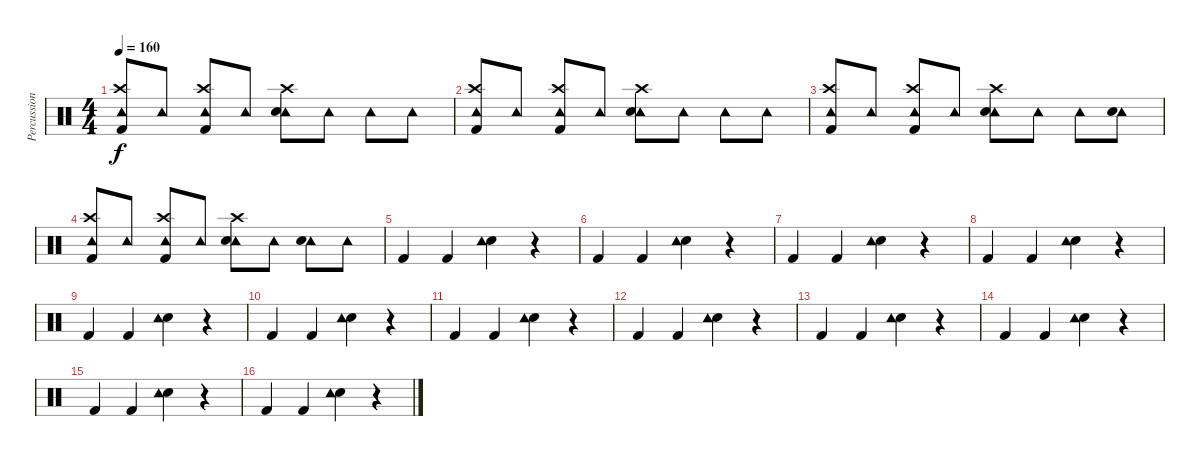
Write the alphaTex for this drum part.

\track ("Percussion" "Percussion") {instrument percussion}
\staff {score}
\articulation defaults
\ts (4 4)
\tempo 160
\clef neutral
\ks c
("Tambourine (hit)" "Crash high (hit)" "Kick (hit) 2").8{dy f} "Tambourine (hit)".8 ("Tambourine (hit)" "Crash high (hit)" "Kick (hit) 2").8 "Tambourine (hit)".8 ("Tambourine (hit)" "Crash high (hit)" "Snare (hit) 2").8 "Tambourine (hit)".8 "Tambourine (hit)".8 "Tambourine (hit)".8 |
("Tambourine (hit)" "Crash high (hit)" "Kick (hit) 2").8 "Tambourine (hit)".8 ("Tambourine (hit)" "Crash high (hit)" "Kick (hit) 2").8 "Tambourine (hit)".8 ("Tambourine (hit)" "Crash high (hit)" "Snare (hit) 2").8 "Tambourine (hit)".8 "Tambourine (hit)".8 "Tambourine (hit)".8 |
("Tambourine (hit)" "Crash high (hit)" "Kick (hit) 2").8 "Tambourine (hit)".8 ("Tambourine (hit)" "Crash high (hit)" "Kick (hit) 2").8 "Tambourine (hit)".8 ("Tambourine (hit)" "Crash high (hit)" "Snare (hit) 2").8 "Tambourine (hit)".8 "Tambourine (hit)".8 ("Tambourine (hit)" "Snare (hit) 2").8 |
("Tambourine (hit)" "Crash high (hit)" "Kick (hit) 2").8 "Tambourine (hit)".8 ("Tambourine (hit)" "Crash high (hit)" "Kick (hit) 2").8 "Tambourine (hit)".8 ("Tambourine (hit)" "Crash high (hit)" "Snare (hit) 2").8 "Tambourine (hit)".8 ("Tambourine (hit)" "Snare (hit) 2").8 "Tambourine (hit)".8 |
"Kick (hit) 2".4 "Kick (hit) 2".4 ("Snare (hit) 2" "Tambourine (hit)").4 r.4 |
"Kick (hit) 2".4 "Kick (hit) 2".4 ("Snare (hit) 2" "Tambourine (hit)").4 r.4 |
"Kick (hit) 2".4 "Kick (hit) 2".4 ("Snare (hit) 2" "Tambourine (hit)").4 r.4 |
"Kick (hit) 2".4 "Kick (hit) 2".4 ("Snare (hit) 2" "Tambourine (hit)").4 r.4 |
"Kick (hit) 2".4 "Kick (hit) 2".4 ("Snare (hit) 2" "Tambourine (hit)").4 r.4 |
"Kick (hit) 2".4 "Kick (hit) 2".4 ("Snare (hit) 2" "Tambourine (hit)").4 r.4 |
"Kick (hit) 2".4 "Kick (hit) 2".4 ("Snare (hit) 2" "Tambourine (hit)").4 r.4 |
"Kick (hit) 2".4 "Kick (hit) 2".4 ("Snare (hit) 2" "Tambourine (hit)").4 r.4 |
"Kick (hit) 2".4 "Kick (hit) 2".4 ("Snare (hit) 2" "Tambourine (hit)").4 r.4 |
"Kick (hit) 2".4 "Kick (hit) 2".4 ("Snare (hit) 2" "Tambourine (hit)").4 r.4 |
"Kick (hit) 2".4 "Kick (hit) 2".4 ("Snare (hit) 2" "Tambourine (hit)").4 r.4 |
"Kick (hit) 2".4 "Kick (hit) 2".4 ("Snare (hit) 2" "Tambourine (hit)").4 r.4
